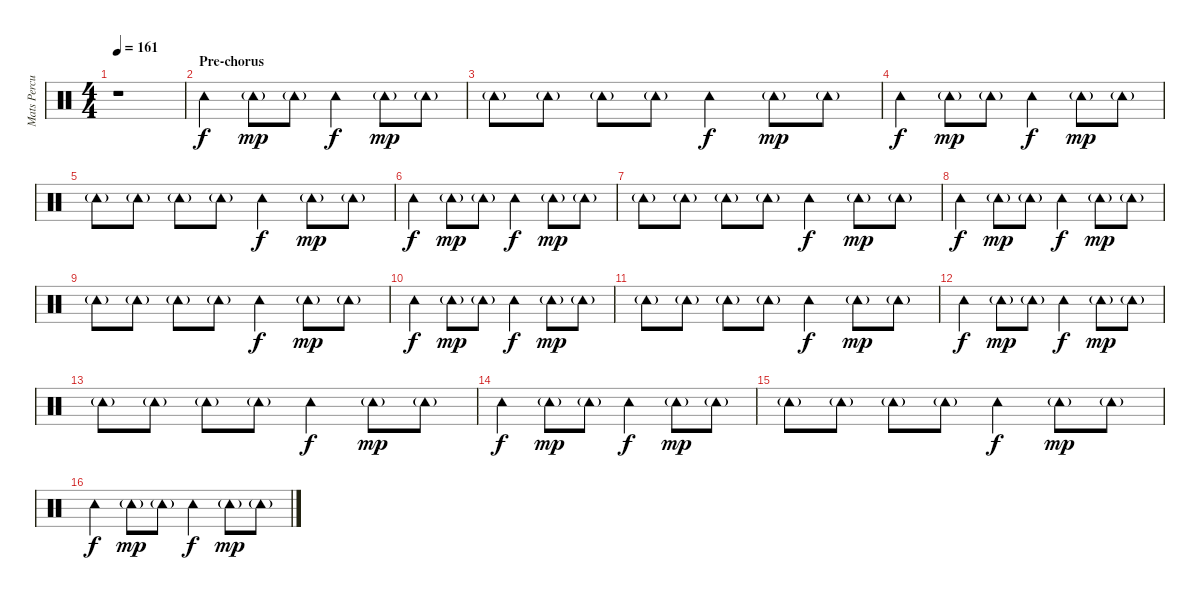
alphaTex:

\track ("Mats Percussion" "Mats Percu") {instrument percussion}
\staff {score}
\articulation defaults
\ts (4 4)
\tempo 161
\clef neutral
\ks c
r.1{dy mp} |
\section ("" "Pre-chorus")
"Tambourine (hit)".4{dy f} "Tambourine (hit)"{g}.8{dy mp} "Tambourine (hit)"{g}.8 "Tambourine (hit)".4{dy f} "Tambourine (hit)"{g}.8{dy mp} "Tambourine (hit)"{g}.8 |
"Tambourine (hit)"{g}.8 "Tambourine (hit)"{g}.8 "Tambourine (hit)"{g}.8 "Tambourine (hit)"{g}.8 "Tambourine (hit)".4{dy f} "Tambourine (hit)"{g}.8{dy mp} "Tambourine (hit)"{g}.8 |
"Tambourine (hit)".4{dy f} "Tambourine (hit)"{g}.8{dy mp} "Tambourine (hit)"{g}.8 "Tambourine (hit)".4{dy f} "Tambourine (hit)"{g}.8{dy mp} "Tambourine (hit)"{g}.8 |
"Tambourine (hit)"{g}.8 "Tambourine (hit)"{g}.8 "Tambourine (hit)"{g}.8 "Tambourine (hit)"{g}.8 "Tambourine (hit)".4{dy f} "Tambourine (hit)"{g}.8{dy mp} "Tambourine (hit)"{g}.8 |
"Tambourine (hit)".4{dy f} "Tambourine (hit)"{g}.8{dy mp} "Tambourine (hit)"{g}.8 "Tambourine (hit)".4{dy f} "Tambourine (hit)"{g}.8{dy mp} "Tambourine (hit)"{g}.8 |
"Tambourine (hit)"{g}.8 "Tambourine (hit)"{g}.8 "Tambourine (hit)"{g}.8 "Tambourine (hit)"{g}.8 "Tambourine (hit)".4{dy f} "Tambourine (hit)"{g}.8{dy mp} "Tambourine (hit)"{g}.8 |
"Tambourine (hit)".4{dy f} "Tambourine (hit)"{g}.8{dy mp} "Tambourine (hit)"{g}.8 "Tambourine (hit)".4{dy f} "Tambourine (hit)"{g}.8{dy mp} "Tambourine (hit)"{g}.8 |
"Tambourine (hit)"{g}.8 "Tambourine (hit)"{g}.8 "Tambourine (hit)"{g}.8 "Tambourine (hit)"{g}.8 "Tambourine (hit)".4{dy f} "Tambourine (hit)"{g}.8{dy mp} "Tambourine (hit)"{g}.8 |
"Tambourine (hit)".4{dy f} "Tambourine (hit)"{g}.8{dy mp} "Tambourine (hit)"{g}.8 "Tambourine (hit)".4{dy f} "Tambourine (hit)"{g}.8{dy mp} "Tambourine (hit)"{g}.8 |
"Tambourine (hit)"{g}.8 "Tambourine (hit)"{g}.8 "Tambourine (hit)"{g}.8 "Tambourine (hit)"{g}.8 "Tambourine (hit)".4{dy f} "Tambourine (hit)"{g}.8{dy mp} "Tambourine (hit)"{g}.8 |
"Tambourine (hit)".4{dy f} "Tambourine (hit)"{g}.8{dy mp} "Tambourine (hit)"{g}.8 "Tambourine (hit)".4{dy f} "Tambourine (hit)"{g}.8{dy mp} "Tambourine (hit)"{g}.8 |
"Tambourine (hit)"{g}.8 "Tambourine (hit)"{g}.8 "Tambourine (hit)"{g}.8 "Tambourine (hit)"{g}.8 "Tambourine (hit)".4{dy f} "Tambourine (hit)"{g}.8{dy mp} "Tambourine (hit)"{g}.8 |
"Tambourine (hit)".4{dy f} "Tambourine (hit)"{g}.8{dy mp} "Tambourine (hit)"{g}.8 "Tambourine (hit)".4{dy f} "Tambourine (hit)"{g}.8{dy mp} "Tambourine (hit)"{g}.8 |
"Tambourine (hit)"{g}.8 "Tambourine (hit)"{g}.8 "Tambourine (hit)"{g}.8 "Tambourine (hit)"{g}.8 "Tambourine (hit)".4{dy f} "Tambourine (hit)"{g}.8{dy mp} "Tambourine (hit)"{g}.8 |
"Tambourine (hit)".4{dy f} "Tambourine (hit)"{g}.8{dy mp} "Tambourine (hit)"{g}.8 "Tambourine (hit)".4{dy f} "Tambourine (hit)"{g}.8{dy mp} "Tambourine (hit)"{g}.8
